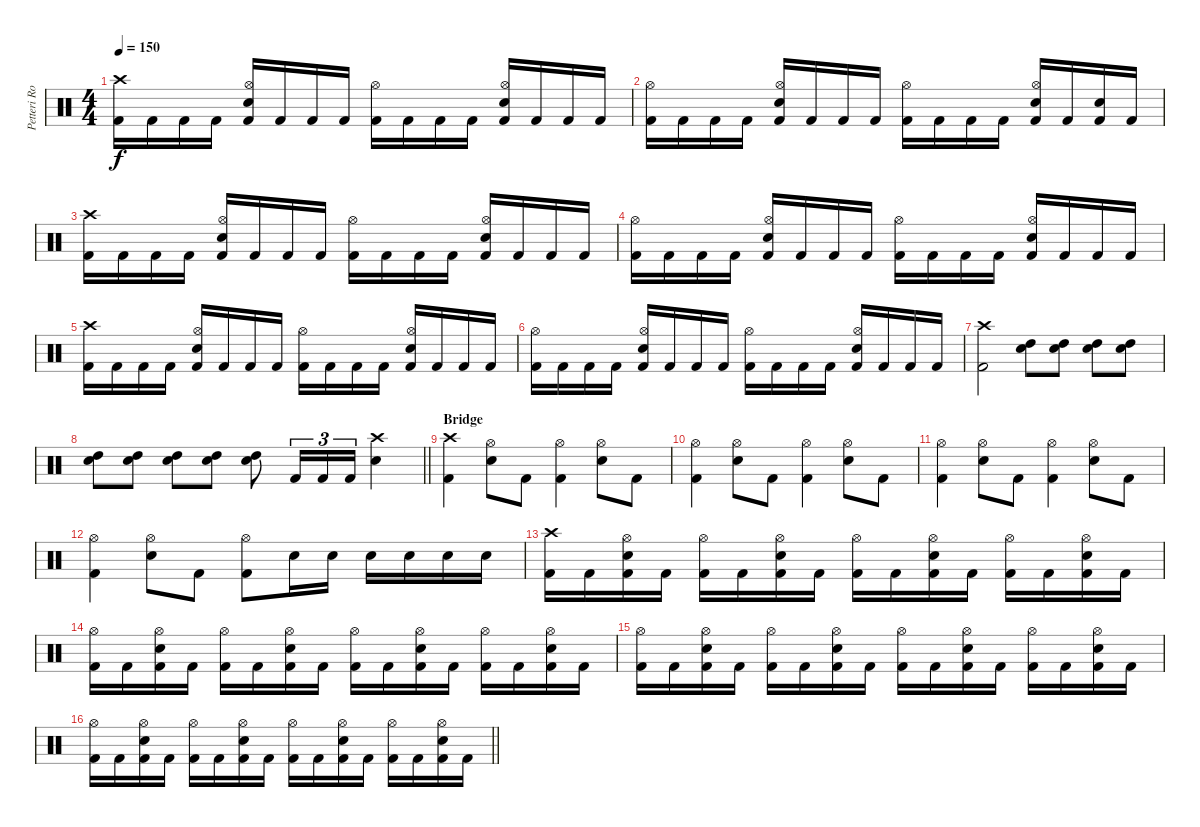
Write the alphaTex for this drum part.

\track ("Petteri Rosenbom" "Petteri Ro") {instrument percussion}
\staff {score}
\articulation defaults
\ts (4 4)
\tempo 150
\clef neutral
\ks c
("Crash high (hit)" "Kick (hit) 2").16{dy f} "Kick (hit) 2".16 "Kick (hit) 2".16 "Kick (hit) 2".16 ("Hi-Hat (open)" "Electric Snare (hit)" "Kick (hit) 2").16 "Kick (hit) 2".16 "Kick (hit) 2".16 "Kick (hit) 2".16 ("Hi-Hat (open)" "Kick (hit) 2").16 "Kick (hit) 2".16 "Kick (hit) 2".16 "Kick (hit) 2".16 ("Hi-Hat (open)" "Electric Snare (hit)" "Kick (hit) 2").16 "Kick (hit) 2".16 "Kick (hit) 2".16 "Kick (hit) 2".16 |
("Hi-Hat (open)" "Kick (hit) 2").16 "Kick (hit) 2".16 "Kick (hit) 2".16 "Kick (hit) 2".16 ("Hi-Hat (open)" "Electric Snare (hit)" "Kick (hit) 2").16 "Kick (hit) 2".16 "Kick (hit) 2".16 "Kick (hit) 2".16 ("Hi-Hat (open)" "Kick (hit) 2").16 "Kick (hit) 2".16 "Kick (hit) 2".16 "Kick (hit) 2".16 ("Hi-Hat (open)" "Electric Snare (hit)" "Kick (hit) 2").16 "Kick (hit) 2".16 ("Electric Snare (hit)" "Kick (hit) 2").16 "Kick (hit) 2".16 |
("Crash high (hit)" "Kick (hit) 2").16 "Kick (hit) 2".16 "Kick (hit) 2".16 "Kick (hit) 2".16 ("Hi-Hat (open)" "Electric Snare (hit)" "Kick (hit) 2").16 "Kick (hit) 2".16 "Kick (hit) 2".16 "Kick (hit) 2".16 ("Hi-Hat (open)" "Kick (hit) 2").16 "Kick (hit) 2".16 "Kick (hit) 2".16 "Kick (hit) 2".16 ("Hi-Hat (open)" "Electric Snare (hit)" "Kick (hit) 2").16 "Kick (hit) 2".16 "Kick (hit) 2".16 "Kick (hit) 2".16 |
("Hi-Hat (open)" "Kick (hit) 2").16 "Kick (hit) 2".16 "Kick (hit) 2".16 "Kick (hit) 2".16 ("Hi-Hat (open)" "Electric Snare (hit)" "Kick (hit) 2").16 "Kick (hit) 2".16 "Kick (hit) 2".16 "Kick (hit) 2".16 ("Hi-Hat (open)" "Kick (hit) 2").16 "Kick (hit) 2".16 "Kick (hit) 2".16 "Kick (hit) 2".16 ("Hi-Hat (open)" "Electric Snare (hit)" "Kick (hit) 2").16 "Kick (hit) 2".16 "Kick (hit) 2".16 "Kick (hit) 2".16 |
("Crash high (hit)" "Kick (hit) 2").16 "Kick (hit) 2".16 "Kick (hit) 2".16 "Kick (hit) 2".16 ("Hi-Hat (open)" "Electric Snare (hit)" "Kick (hit) 2").16 "Kick (hit) 2".16 "Kick (hit) 2".16 "Kick (hit) 2".16 ("Hi-Hat (open)" "Kick (hit) 2").16 "Kick (hit) 2".16 "Kick (hit) 2".16 "Kick (hit) 2".16 ("Hi-Hat (open)" "Electric Snare (hit)" "Kick (hit) 2").16 "Kick (hit) 2".16 "Kick (hit) 2".16 "Kick (hit) 2".16 |
("Hi-Hat (open)" "Kick (hit) 2").16 "Kick (hit) 2".16 "Kick (hit) 2".16 "Kick (hit) 2".16 ("Hi-Hat (open)" "Electric Snare (hit)" "Kick (hit) 2").16 "Kick (hit) 2".16 "Kick (hit) 2".16 "Kick (hit) 2".16 ("Hi-Hat (open)" "Kick (hit) 2").16 "Kick (hit) 2".16 "Kick (hit) 2".16 "Kick (hit) 2".16 ("Hi-Hat (open)" "Electric Snare (hit)" "Kick (hit) 2").16 "Kick (hit) 2".16 "Kick (hit) 2".16 "Kick (hit) 2".16 |
("Crash high (hit)" "Kick (hit) 2").2 ("High Tom (hit)" "Electric Snare (hit)").8 ("High Tom (hit)" "Electric Snare (hit)").8 ("High Tom (hit)" "Electric Snare (hit)").8 ("High Tom (hit)" "Electric Snare (hit)").8 |
\barLineRight lightlight
("High Tom (hit)" "Electric Snare (hit)").8 ("High Tom (hit)" "Electric Snare (hit)").8 ("High Tom (hit)" "Electric Snare (hit)").8 ("High Tom (hit)" "Electric Snare (hit)").8 ("High Tom (hit)" "Electric Snare (hit)").8 "Kick (hit) 2".16{tu (3 2)} "Kick (hit) 2".16{tu (3 2)} "Kick (hit) 2".16{tu (3 2)} ("Crash high (hit)" "Electric Snare (hit)").4 |
\section ("" "Bridge")
("Crash high (hit)" "Kick (hit) 2").4 ("Hi-Hat (open)" "Electric Snare (hit)").8 "Kick (hit) 2".8 ("Hi-Hat (open)" "Kick (hit) 2").4 ("Hi-Hat (open)" "Electric Snare (hit)").8 "Kick (hit) 2".8 |
("Hi-Hat (open)" "Kick (hit) 2").4 ("Hi-Hat (open)" "Electric Snare (hit)").8 "Kick (hit) 2".8 ("Hi-Hat (open)" "Kick (hit) 2").4 ("Hi-Hat (open)" "Electric Snare (hit)").8 "Kick (hit) 2".8 |
("Hi-Hat (open)" "Kick (hit) 2").4 ("Hi-Hat (open)" "Electric Snare (hit)").8 "Kick (hit) 2".8 ("Hi-Hat (open)" "Kick (hit) 2").4 ("Hi-Hat (open)" "Electric Snare (hit)").8 "Kick (hit) 2".8 |
("Hi-Hat (open)" "Kick (hit) 2").4 ("Hi-Hat (open)" "Electric Snare (hit)").8 "Kick (hit) 2".8 ("Hi-Hat (open)" "Kick (hit) 2").8 "Electric Snare (hit)".16 "Electric Snare (hit)".16 "Electric Snare (hit)".16 "Electric Snare (hit)".16 "Electric Snare (hit)".16 "Electric Snare (hit)".16 |
("Crash high (hit)" "Kick (hit) 2").16 "Kick (hit) 2".16 ("Hi-Hat (open)" "Electric Snare (hit)" "Kick (hit) 2").16 "Kick (hit) 2".16 ("Hi-Hat (open)" "Kick (hit) 2").16 "Kick (hit) 2".16 ("Hi-Hat (open)" "Electric Snare (hit)" "Kick (hit) 2").16 "Kick (hit) 2".16 ("Hi-Hat (open)" "Kick (hit) 2").16 "Kick (hit) 2".16 ("Hi-Hat (open)" "Electric Snare (hit)" "Kick (hit) 2").16 "Kick (hit) 2".16 ("Hi-Hat (open)" "Kick (hit) 2").16 "Kick (hit) 2".16 ("Hi-Hat (open)" "Electric Snare (hit)" "Kick (hit) 2").16 "Kick (hit) 2".16 |
("Hi-Hat (open)" "Kick (hit) 2").16 "Kick (hit) 2".16 ("Hi-Hat (open)" "Electric Snare (hit)" "Kick (hit) 2").16 "Kick (hit) 2".16 ("Hi-Hat (open)" "Kick (hit) 2").16 "Kick (hit) 2".16 ("Hi-Hat (open)" "Electric Snare (hit)" "Kick (hit) 2").16 "Kick (hit) 2".16 ("Hi-Hat (open)" "Kick (hit) 2").16 "Kick (hit) 2".16 ("Hi-Hat (open)" "Electric Snare (hit)" "Kick (hit) 2").16 "Kick (hit) 2".16 ("Hi-Hat (open)" "Kick (hit) 2").16 "Kick (hit) 2".16 ("Hi-Hat (open)" "Electric Snare (hit)" "Kick (hit) 2").16 "Kick (hit) 2".16 |
("Hi-Hat (open)" "Kick (hit) 2").16 "Kick (hit) 2".16 ("Hi-Hat (open)" "Electric Snare (hit)" "Kick (hit) 2").16 "Kick (hit) 2".16 ("Hi-Hat (open)" "Kick (hit) 2").16 "Kick (hit) 2".16 ("Hi-Hat (open)" "Electric Snare (hit)" "Kick (hit) 2").16 "Kick (hit) 2".16 ("Hi-Hat (open)" "Kick (hit) 2").16 "Kick (hit) 2".16 ("Hi-Hat (open)" "Electric Snare (hit)" "Kick (hit) 2").16 "Kick (hit) 2".16 ("Hi-Hat (open)" "Kick (hit) 2").16 "Kick (hit) 2".16 ("Hi-Hat (open)" "Electric Snare (hit)" "Kick (hit) 2").16 "Kick (hit) 2".16 |
\barLineRight lightlight
("Hi-Hat (open)" "Kick (hit) 2").16 "Kick (hit) 2".16 ("Hi-Hat (open)" "Electric Snare (hit)" "Kick (hit) 2").16 "Kick (hit) 2".16 ("Hi-Hat (open)" "Kick (hit) 2").16 "Kick (hit) 2".16 ("Hi-Hat (open)" "Electric Snare (hit)" "Kick (hit) 2").16 "Kick (hit) 2".16 ("Hi-Hat (open)" "Kick (hit) 2").16 "Kick (hit) 2".16 ("Hi-Hat (open)" "Electric Snare (hit)" "Kick (hit) 2").16 "Kick (hit) 2".16 ("Hi-Hat (open)" "Kick (hit) 2").16 "Kick (hit) 2".16 ("Hi-Hat (open)" "Electric Snare (hit)" "Kick (hit) 2").16 "Kick (hit) 2".16
